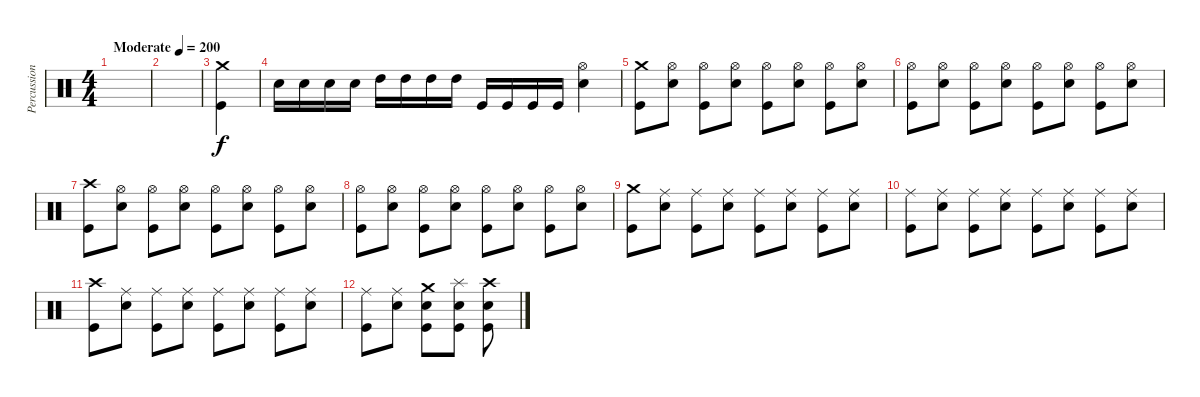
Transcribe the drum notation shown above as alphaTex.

\track ("Percussion" "Percussion") {instrument percussion}
\staff {score}
\articulation defaults
\ts (4 4)
\tempo (200 "Moderate")
\clef neutral
\ks c
|
|
("Crash medium (hit)" "Kick (hit)").4 |
"Electric Snare (hit)".16 "Electric Snare (hit)".16 "Electric Snare (hit)".16 "Electric Snare (hit)".16 "High Tom (hit)".16 "High Tom (hit)".16 "High Tom (hit)".16 "High Tom (hit)".16 "Kick (hit)".16 "Kick (hit)".16 "Kick (hit)".16 "Kick (hit)".16 ("Hi-Hat (open)" "Electric Snare (hit)").4 |
("Crash medium (hit)" "Kick (hit)").8 ("Hi-Hat (open)" "Electric Snare (hit)").8 ("Hi-Hat (open)" "Kick (hit)").8 ("Hi-Hat (open)" "Electric Snare (hit)").8 ("Hi-Hat (open)" "Kick (hit)").8 ("Hi-Hat (open)" "Electric Snare (hit)").8 ("Hi-Hat (open)" "Kick (hit)").8 ("Hi-Hat (open)" "Electric Snare (hit)").8 |
("Hi-Hat (open)" "Kick (hit)").8 ("Hi-Hat (open)" "Electric Snare (hit)").8 ("Hi-Hat (open)" "Kick (hit)").8 ("Hi-Hat (open)" "Electric Snare (hit)").8 ("Hi-Hat (open)" "Kick (hit)").8 ("Hi-Hat (open)" "Electric Snare (hit)").8 ("Hi-Hat (open)" "Kick (hit)").8 ("Hi-Hat (open)" "Electric Snare (hit)").8 |
("Crash high (hit)" "Kick (hit)").8 ("Hi-Hat (open)" "Electric Snare (hit)").8 ("Hi-Hat (open)" "Kick (hit)").8 ("Hi-Hat (open)" "Electric Snare (hit)").8 ("Hi-Hat (open)" "Kick (hit)").8 ("Hi-Hat (open)" "Electric Snare (hit)").8 ("Hi-Hat (open)" "Kick (hit)").8 ("Hi-Hat (open)" "Electric Snare (hit)").8 |
("Hi-Hat (open)" "Kick (hit)").8 ("Hi-Hat (open)" "Electric Snare (hit)").8 ("Hi-Hat (open)" "Kick (hit)").8 ("Hi-Hat (open)" "Electric Snare (hit)").8 ("Hi-Hat (open)" "Kick (hit)").8 ("Hi-Hat (open)" "Electric Snare (hit)").8 ("Hi-Hat (open)" "Kick (hit)").8 ("Hi-Hat (open)" "Electric Snare (hit)").8 |
("Crash medium (hit)" "Kick (hit)").8 ("Ride (middle)" "Electric Snare (hit)").8 ("Ride (middle)" "Kick (hit)").8 ("Ride (middle)" "Electric Snare (hit)").8 ("Ride (middle)" "Kick (hit)").8 ("Ride (middle)" "Electric Snare (hit)").8 ("Ride (middle)" "Kick (hit)").8 ("Ride (middle)" "Electric Snare (hit)").8 |
("Ride (middle)" "Kick (hit)").8 ("Ride (middle)" "Electric Snare (hit)").8 ("Ride (middle)" "Kick (hit)").8 ("Ride (middle)" "Electric Snare (hit)").8 ("Ride (middle)" "Kick (hit)").8 ("Ride (middle)" "Electric Snare (hit)").8 ("Ride (middle)" "Kick (hit)").8 ("Ride (middle)" "Electric Snare (hit)").8 |
("Crash high (hit)" "Kick (hit)").8 ("Ride (middle)" "Electric Snare (hit)").8 ("Ride (middle)" "Kick (hit)").8 ("Ride (middle)" "Electric Snare (hit)").8 ("Ride (middle)" "Kick (hit)").8 ("Ride (middle)" "Electric Snare (hit)").8 ("Ride (middle)" "Kick (hit)").8 ("Ride (middle)" "Electric Snare (hit)").8 |
("Ride (middle)" "Kick (hit)").8 ("Ride (middle)" "Electric Snare (hit)").8 ("Crash medium (hit)" "Electric Snare (hit)" "Kick (hit)").8 ("Splash (hit)" "Electric Snare (hit)" "Kick (hit)").8 ("Crash high (hit)" "Electric Snare (hit)" "Kick (hit)").8
